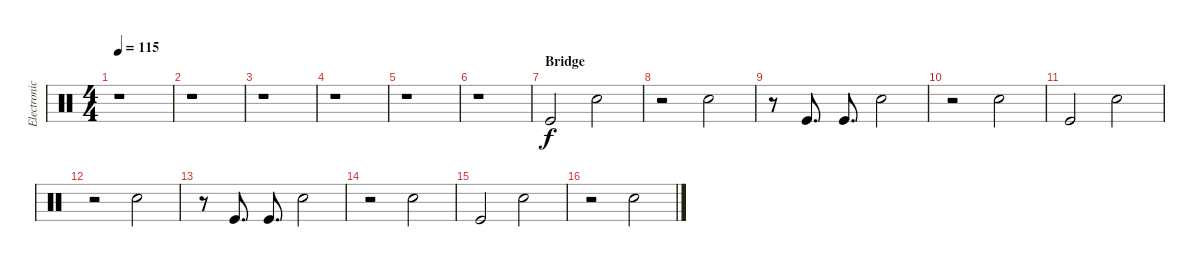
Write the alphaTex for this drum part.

\track ("Electronic Drums" "Electronic") {instrument percussion}
\staff {score}
\articulation defaults
\ts (4 4)
\tempo 115
\clef neutral
\ks c
r.1{dy f} |
r.1 |
r.1 |
r.1 |
r.1 |
r.1 |
\section ("" "Bridge")
"Kick (hit)".2 "Hand Clap (hit)".2 |
r.2 "Hand Clap (hit)".2 |
r.8 "Kick (hit)".8{d} "Kick (hit)".8{d} "Hand Clap (hit)".2 |
r.2 "Hand Clap (hit)".2 |
"Kick (hit)".2 "Hand Clap (hit)".2 |
r.2 "Hand Clap (hit)".2 |
r.8 "Kick (hit)".8{d} "Kick (hit)".8{d} "Hand Clap (hit)".2 |
r.2 "Hand Clap (hit)".2 |
"Kick (hit)".2 "Hand Clap (hit)".2 |
r.2 "Hand Clap (hit)".2
